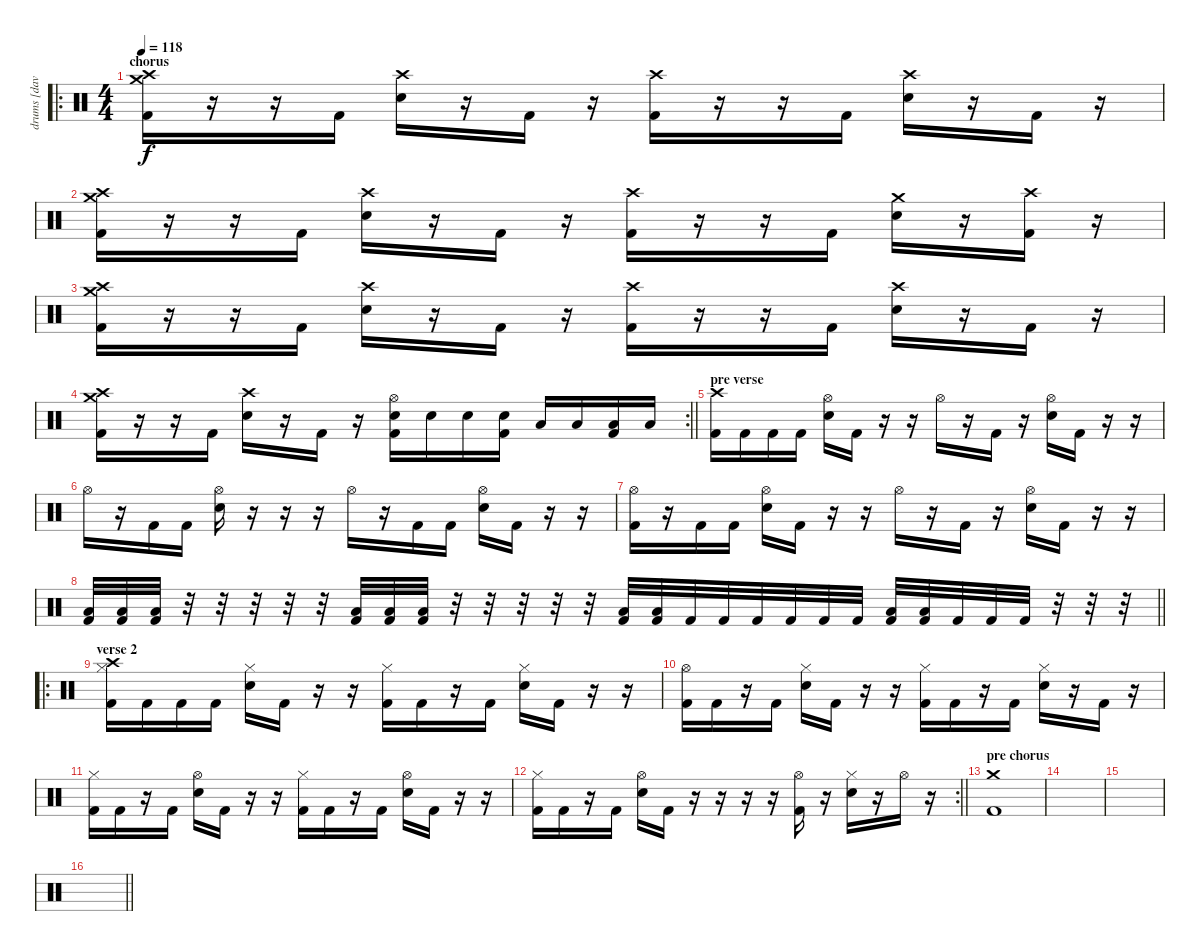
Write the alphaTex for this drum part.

\track ("drums [david]" "drums [dav") {instrument percussion}
\staff {score}
\articulation defaults
\ro
\ts (4 4)
\section ("" "chorus")
\tempo 118
\clef neutral
\ks c
("Crash high (hit)" "Crash medium (hit)" "Kick (hit) 2").16{dy f} r.16 r.16 "Kick (hit) 2".16 ("Crash high (hit)" "Electric Snare (hit)").16 r.16 "Kick (hit) 2".16 r.16 ("Crash high (hit)" "Kick (hit) 2").16 r.16 r.16 "Kick (hit) 2".16 ("Crash high (hit)" "Electric Snare (hit)").16 r.16 "Kick (hit) 2".16 r.16 |
("Crash high (hit)" "Crash medium (hit)" "Kick (hit) 2").16 r.16 r.16 "Kick (hit) 2".16 ("Crash high (hit)" "Electric Snare (hit)").16 r.16 "Kick (hit) 2".16 r.16 ("Crash high (hit)" "Kick (hit) 2").16 r.16 r.16 "Kick (hit) 2".16 ("Crash medium (hit)" "Electric Snare (hit)").16 r.16 ("Crash high (hit)" "Kick (hit) 2").16 r.16 |
("Crash high (hit)" "Crash medium (hit)" "Kick (hit) 2").16 r.16 r.16 "Kick (hit) 2".16 ("Crash high (hit)" "Electric Snare (hit)").16 r.16 "Kick (hit) 2".16 r.16 ("Crash high (hit)" "Kick (hit) 2").16 r.16 r.16 "Kick (hit) 2".16 ("Crash high (hit)" "Electric Snare (hit)").16 r.16 "Kick (hit) 2".16 r.16 |
\rc 2
\barLineRight lightlight
("Crash high (hit)" "Crash medium (hit)" "Kick (hit) 2").16 r.16 r.16 "Kick (hit) 2".16 ("Crash high (hit)" "Electric Snare (hit)").16 r.16 "Kick (hit) 2".16 r.16 ("Hi-Hat (open)" "Electric Snare (hit)" "Kick (hit) 2").16 "Electric Snare (hit)".16 "Electric Snare (hit)".16 ("Electric Snare (hit)" "Kick (hit) 2").16 "Low Tom (hit)".16 "Low Tom (hit)".16 ("Low Tom (hit)" "Kick (hit) 2").16 "Low Tom (hit)".16 |
\section ("" "pre verse")
("Crash high (hit)" "Kick (hit) 2").16 "Kick (hit) 2".16 "Kick (hit) 2".16 "Kick (hit) 2".16 ("Hi-Hat (open)" "Electric Snare (hit)").16 "Kick (hit) 2".16 r.16 r.16 "Hi-Hat (open)".16 r.16 "Kick (hit) 2".16 r.16 ("Hi-Hat (open)" "Electric Snare (hit)").16 "Kick (hit) 2".16 r.16 r.16 |
"Hi-Hat (open)".16 r.16 "Kick (hit) 2".16 "Kick (hit) 2".16 ("Hi-Hat (open)" "Electric Snare (hit)").16 r.16 r.16 r.16 "Hi-Hat (open)".16 r.16 "Kick (hit) 2".16 "Kick (hit) 2".16 ("Hi-Hat (open)" "Electric Snare (hit)").16 "Kick (hit) 2".16 r.16 r.16 |
("Hi-Hat (open)" "Kick (hit) 2").16 r.16 "Kick (hit) 2".16 "Kick (hit) 2".16 ("Hi-Hat (open)" "Electric Snare (hit)").16 "Kick (hit) 2".16 r.16 r.16 "Hi-Hat (open)".16 r.16 "Kick (hit) 2".16 r.16 ("Hi-Hat (open)" "Electric Snare (hit)").16 "Kick (hit) 2".16 r.16 r.16 |
\barLineRight lightlight
("Low Tom (hit)" "Kick (hit) 2").32 ("Low Tom (hit)" "Kick (hit) 2").32 ("Low Tom (hit)" "Kick (hit) 2").32 r.32 r.32 r.32 r.32 r.32 ("Low Tom (hit)" "Kick (hit) 2").32 ("Low Tom (hit)" "Kick (hit) 2").32 ("Low Tom (hit)" "Kick (hit) 2").32 r.32 r.32 r.32 r.32 r.32 ("Low Tom (hit)" "Kick (hit) 2").32 ("Low Tom (hit)" "Kick (hit) 2").32 "Kick (hit) 2".32 "Kick (hit) 2".32 "Kick (hit) 2".32 "Kick (hit) 2".32 "Kick (hit) 2".32 "Kick (hit) 2".32 ("Low Tom (hit)" "Kick (hit) 2").32 ("Low Tom (hit)" "Kick (hit) 2").32 "Kick (hit) 2".32 "Kick (hit) 2".32 "Kick (hit) 2".32 r.32 r.32 r.32 |
\ro
\section ("" "verse 2")
("Crash high (hit)" "Hi-Hat (closed)" "Kick (hit) 2").16 "Kick (hit) 2".16 "Kick (hit) 2".16 "Kick (hit) 2".16 ("Hi-Hat (closed)" "Electric Snare (hit)").16 "Kick (hit) 2".16 r.16 r.16 ("Hi-Hat (closed)" "Kick (hit) 2").16 "Kick (hit) 2".16 r.16 "Kick (hit) 2".16 ("Hi-Hat (closed)" "Electric Snare (hit)").16 "Kick (hit) 2".16 r.16 r.16 |
("Hi-Hat (open)" "Kick (hit) 2").16 "Kick (hit) 2".16 r.16 "Kick (hit) 2".16 ("Hi-Hat (closed)" "Electric Snare (hit)").16 "Kick (hit) 2".16 r.16 r.16 ("Hi-Hat (closed)" "Kick (hit) 2").16 "Kick (hit) 2".16 r.16 "Kick (hit) 2".16 ("Hi-Hat (closed)" "Electric Snare (hit)").16 r.16 "Kick (hit) 2".16 r.16 |
("Hi-Hat (closed)" "Kick (hit) 2").16 "Kick (hit) 2".16 r.16 "Kick (hit) 2".16 ("Hi-Hat (open)" "Electric Snare (hit)").16 "Kick (hit) 2".16 r.16 r.16 ("Hi-Hat (closed)" "Kick (hit) 2").16 "Kick (hit) 2".16 r.16 "Kick (hit) 2".16 ("Hi-Hat (open)" "Electric Snare (hit)").16 "Kick (hit) 2".16 r.16 r.16 |
\rc 2
\barLineRight lightlight
("Hi-Hat (closed)" "Kick (hit) 2").16 "Kick (hit) 2".16 r.16 "Kick (hit) 2".16 ("Hi-Hat (open)" "Electric Snare (hit)").16 "Kick (hit) 2".16 r.16 r.16 r.16 r.16 ("Hi-Hat (open)" "Kick (hit) 2").16 r.16 ("Hi-Hat (closed)" "Electric Snare (hit)").16 r.16 "Hi-Hat (open)".16 r.16 |
\section ("" "pre chorus")
("Crash medium (hit)" "Kick (hit) 2").1 |
|
|
\barLineRight lightlight
